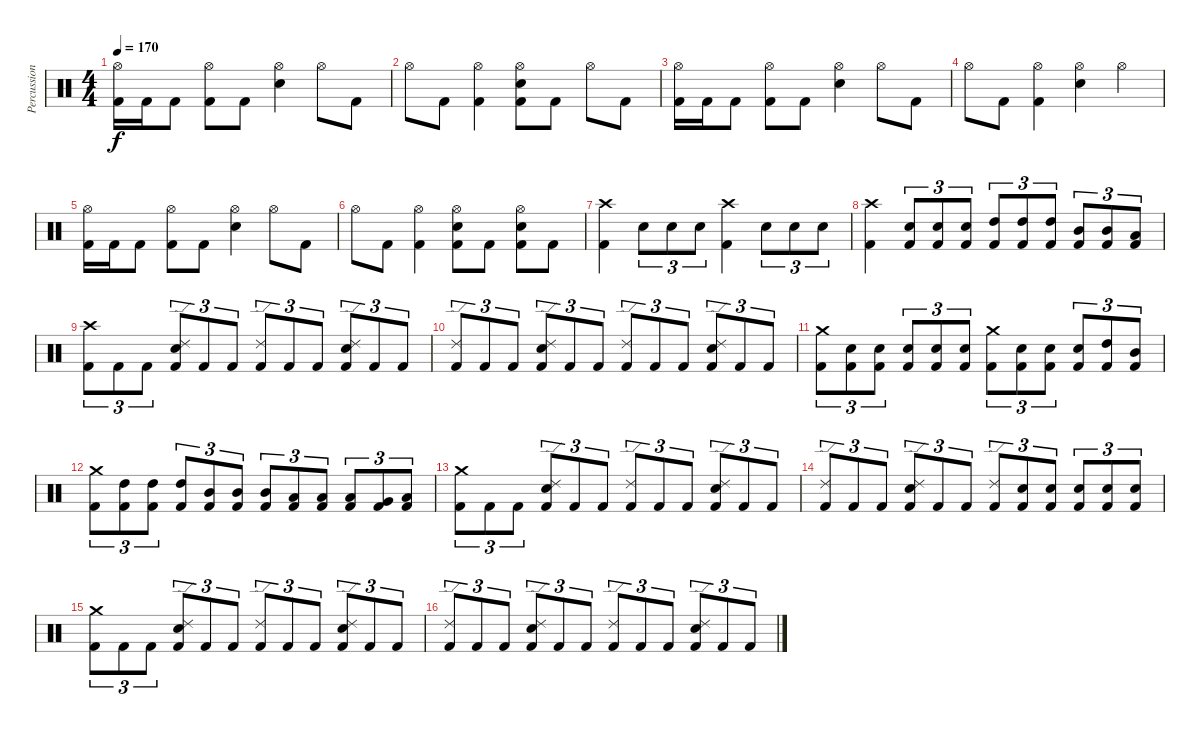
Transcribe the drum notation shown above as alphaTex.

\track ("Percussion" "Percussion") {instrument percussion}
\staff {score}
\articulation defaults
\ts (4 4)
\tempo 170
\clef neutral
\ks c
("Hi-Hat (open)" "Kick (hit) 2").16{dy f} "Kick (hit) 2".16 "Kick (hit) 2".8 ("Hi-Hat (open)" "Kick (hit) 2").8 "Kick (hit) 2".8 ("Hi-Hat (open)" "Snare (hit) 2").4 "Hi-Hat (open)".8 "Kick (hit) 2".8 |
"Hi-Hat (open)".8 "Kick (hit) 2".8 ("Hi-Hat (open)" "Kick (hit) 2").4 ("Hi-Hat (open)" "Snare (hit) 2" "Kick (hit) 2").8 "Kick (hit) 2".8 "Hi-Hat (open)".8 "Kick (hit) 2".8 |
("Hi-Hat (open)" "Kick (hit) 2").16 "Kick (hit) 2".16 "Kick (hit) 2".8 ("Hi-Hat (open)" "Kick (hit) 2").8 "Kick (hit) 2".8 ("Hi-Hat (open)" "Snare (hit) 2").4 "Hi-Hat (open)".8 "Kick (hit) 2".8 |
"Hi-Hat (open)".8 "Kick (hit) 2".8 ("Hi-Hat (open)" "Kick (hit) 2").4 ("Hi-Hat (open)" "Snare (hit) 2").4 "Hi-Hat (open)".4 |
("Hi-Hat (open)" "Kick (hit) 2").16 "Kick (hit) 2".16 "Kick (hit) 2".8 ("Hi-Hat (open)" "Kick (hit) 2").8 "Kick (hit) 2".8 ("Hi-Hat (open)" "Snare (hit) 2").4 "Hi-Hat (open)".8 "Kick (hit) 2".8 |
"Hi-Hat (open)".8 "Kick (hit) 2".8 ("Hi-Hat (open)" "Kick (hit) 2").4 ("Hi-Hat (open)" "Snare (hit) 2" "Kick (hit) 2").8 "Kick (hit) 2".8 ("Hi-Hat (open)" "Snare (hit) 2" "Kick (hit) 2").8 "Kick (hit) 2".8 |
("Crash high (hit)" "Kick (hit) 2").4 "Snare (hit) 2".8{tu (3 2)} "Snare (hit) 2".8{tu (3 2)} "Snare (hit) 2".8{tu (3 2)} ("Crash high (hit)" "Kick (hit) 2").4 "Snare (hit) 2".8{tu (3 2)} "Snare (hit) 2".8{tu (3 2)} "Snare (hit) 2".8{tu (3 2)} |
("Crash high (hit)" "Kick (hit) 2").4 ("Snare (hit) 2" "Kick (hit) 2").8{tu (3 2)} ("Snare (hit) 2" "Kick (hit) 2").8{tu (3 2)} ("Snare (hit) 2" "Kick (hit) 2").8{tu (3 2)} ("High Tom (hit)" "Kick (hit) 2").8{tu (3 2)} ("High Tom (hit)" "Kick (hit) 2").8{tu (3 2)} ("High Tom (hit)" "Kick (hit) 2").8{tu (3 2)} ("Mid Tom (hit)" "Kick (hit) 2").8{tu (3 2)} ("Mid Tom (hit)" "Kick (hit) 2").8{tu (3 2)} ("Low Tom (hit)" "Kick (hit) 2").8{tu (3 2)} |
("Crash high (hit)" "Kick (hit) 2").8{tu (3 2)} "Kick (hit) 2".8{tu (3 2)} "Kick (hit) 2".8{tu (3 2)} ("Ride (edge) 2" "Snare (hit) 2" "Kick (hit) 2").8{tu (3 2)} "Kick (hit) 2".8{tu (3 2)} "Kick (hit) 2".8{tu (3 2)} ("Ride (edge) 2" "Kick (hit) 2").8{tu (3 2)} "Kick (hit) 2".8{tu (3 2)} "Kick (hit) 2".8{tu (3 2)} ("Ride (edge) 2" "Snare (hit) 2" "Kick (hit) 2").8{tu (3 2)} "Kick (hit) 2".8{tu (3 2)} "Kick (hit) 2".8{tu (3 2)} |
("Ride (edge) 2" "Kick (hit) 2").8{tu (3 2)} "Kick (hit) 2".8{tu (3 2)} "Kick (hit) 2".8{tu (3 2)} ("Ride (edge) 2" "Snare (hit) 2" "Kick (hit) 2").8{tu (3 2)} "Kick (hit) 2".8{tu (3 2)} "Kick (hit) 2".8{tu (3 2)} ("Ride (edge) 2" "Kick (hit) 2").8{tu (3 2)} "Kick (hit) 2".8{tu (3 2)} "Kick (hit) 2".8{tu (3 2)} ("Ride (edge) 2" "Snare (hit) 2" "Kick (hit) 2").8{tu (3 2)} "Kick (hit) 2".8{tu (3 2)} "Kick (hit) 2".8{tu (3 2)} |
("Crash medium (hit)" "Kick (hit) 2").8{tu (3 2)} ("Snare (hit) 2" "Kick (hit) 2").8{tu (3 2)} ("Snare (hit) 2" "Kick (hit) 2").8{tu (3 2)} ("Snare (hit) 2" "Kick (hit) 2").8{tu (3 2)} ("Snare (hit) 2" "Kick (hit) 2").8{tu (3 2)} ("Snare (hit) 2" "Kick (hit) 2").8{tu (3 2)} ("Crash medium (hit)" "Kick (hit) 2").8{tu (3 2)} ("Snare (hit) 2" "Kick (hit) 2").8{tu (3 2)} ("Snare (hit) 2" "Kick (hit) 2").8{tu (3 2)} ("Snare (hit) 2" "Kick (hit) 2").8{tu (3 2)} ("High Tom (hit)" "Kick (hit) 2").8{tu (3 2)} ("Mid Tom (hit)" "Kick (hit) 2").8{tu (3 2)} |
("Crash medium (hit)" "Kick (hit) 2").8{tu (3 2)} ("High Tom (hit)" "Kick (hit) 2").8{tu (3 2)} ("High Tom (hit)" "Kick (hit) 2").8{tu (3 2)} ("High Tom (hit)" "Kick (hit) 2").8{tu (3 2)} ("Mid Tom (hit)" "Kick (hit) 2").8{tu (3 2)} ("Mid Tom (hit)" "Kick (hit) 2").8{tu (3 2)} ("Mid Tom (hit)" "Kick (hit) 2").8{tu (3 2)} ("Low Tom (hit)" "Kick (hit) 2").8{tu (3 2)} ("Low Tom (hit)" "Kick (hit) 2").8{tu (3 2)} ("Low Tom (hit)" "Kick (hit) 2").8{tu (3 2)} ("Very Low Tom (hit)" "Kick (hit) 2").8{tu (3 2)} ("Low Floor Tom (hit)" "Kick (hit) 2").8{tu (3 2)} |
("Crash medium (hit)" "Kick (hit) 2").8{tu (3 2)} "Kick (hit) 2".8{tu (3 2)} "Kick (hit) 2".8{tu (3 2)} ("Ride (edge) 2" "Snare (hit) 2" "Kick (hit) 2").8{tu (3 2)} "Kick (hit) 2".8{tu (3 2)} "Kick (hit) 2".8{tu (3 2)} ("Ride (edge) 2" "Kick (hit) 2").8{tu (3 2)} "Kick (hit) 2".8{tu (3 2)} "Kick (hit) 2".8{tu (3 2)} ("Ride (edge) 2" "Snare (hit) 2" "Kick (hit) 2").8{tu (3 2)} "Kick (hit) 2".8{tu (3 2)} "Kick (hit) 2".8{tu (3 2)} |
("Ride (edge) 2" "Kick (hit) 2").8{tu (3 2)} "Kick (hit) 2".8{tu (3 2)} "Kick (hit) 2".8{tu (3 2)} ("Ride (edge) 2" "Snare (hit) 2" "Kick (hit) 2").8{tu (3 2)} "Kick (hit) 2".8{tu (3 2)} "Kick (hit) 2".8{tu (3 2)} ("Ride (edge) 2" "Kick (hit) 2").8{tu (3 2)} ("Snare (hit) 2" "Kick (hit) 2").8{tu (3 2)} ("Snare (hit) 2" "Kick (hit) 2").8{tu (3 2)} ("Snare (hit) 2" "Kick (hit) 2").8{tu (3 2)} ("Snare (hit) 2" "Kick (hit) 2").8{tu (3 2)} ("Snare (hit) 2" "Kick (hit) 2").8{tu (3 2)} |
("Crash medium (hit)" "Kick (hit) 2").8{tu (3 2)} "Kick (hit) 2".8{tu (3 2)} "Kick (hit) 2".8{tu (3 2)} ("Ride (edge) 2" "Snare (hit) 2" "Kick (hit) 2").8{tu (3 2)} "Kick (hit) 2".8{tu (3 2)} "Kick (hit) 2".8{tu (3 2)} ("Ride (edge) 2" "Kick (hit) 2").8{tu (3 2)} "Kick (hit) 2".8{tu (3 2)} "Kick (hit) 2".8{tu (3 2)} ("Ride (edge) 2" "Snare (hit) 2" "Kick (hit) 2").8{tu (3 2)} "Kick (hit) 2".8{tu (3 2)} "Kick (hit) 2".8{tu (3 2)} |
("Ride (edge) 2" "Kick (hit) 2").8{tu (3 2)} "Kick (hit) 2".8{tu (3 2)} "Kick (hit) 2".8{tu (3 2)} ("Ride (edge) 2" "Snare (hit) 2" "Kick (hit) 2").8{tu (3 2)} "Kick (hit) 2".8{tu (3 2)} "Kick (hit) 2".8{tu (3 2)} ("Ride (edge) 2" "Kick (hit) 2").8{tu (3 2)} "Kick (hit) 2".8{tu (3 2)} "Kick (hit) 2".8{tu (3 2)} ("Ride (edge) 2" "Snare (hit) 2" "Kick (hit) 2").8{tu (3 2)} "Kick (hit) 2".8{tu (3 2)} "Kick (hit) 2".8{tu (3 2)}
